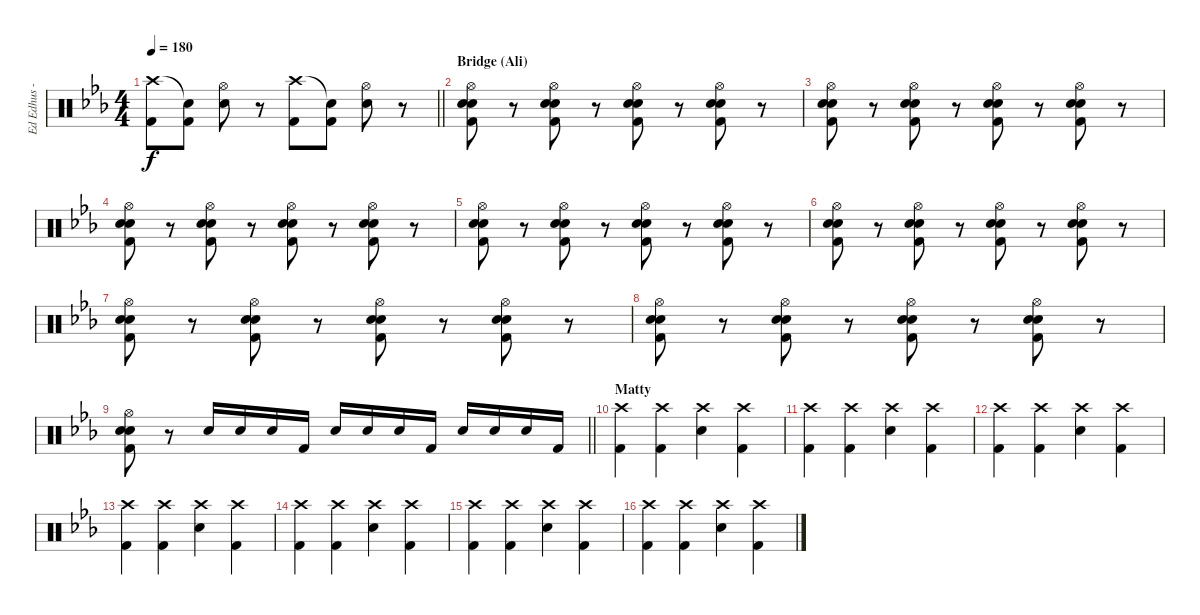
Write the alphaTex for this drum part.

\track ("Ed Edhus - Drums" "Ed Edhus -") {instrument percussion bank 127}
\staff {score}
\articulation defaults
\ts (4 4)
\tempo 180
\clef neutral
\barLineRight lightlight
\ks eb
("Crash high (hit)" "Kick (hit) 2").8{dy f} ("Snare (hit)"{t} "Kick (hit) 2").8 ("Hi-Hat (open)" "Snare (hit) 2").8 r.8 ("Crash high (hit)" "Kick (hit) 2").8 ("Snare (hit)"{t} "Kick (hit) 2").8 ("Hi-Hat (open)" "Snare (hit) 2").8 r.8 |
\section ("" "Bridge (Ali)")
("Hi-Hat (open)" "Snare (hit) 2" "Snare (hit) 2" "Kick (hit) 2").8 r.8 ("Hi-Hat (open)" "Snare (hit) 2" "Snare (hit) 2" "Kick (hit) 2").8 r.8 ("Hi-Hat (open)" "Snare (hit) 2" "Snare (hit) 2" "Kick (hit) 2").8 r.8 ("Hi-Hat (open)" "Snare (hit) 2" "Snare (hit) 2" "Kick (hit) 2").8 r.8 |
("Hi-Hat (open)" "Snare (hit) 2" "Snare (hit) 2" "Kick (hit) 2").8 r.8 ("Hi-Hat (open)" "Snare (hit) 2" "Snare (hit) 2" "Kick (hit) 2").8 r.8 ("Hi-Hat (open)" "Snare (hit) 2" "Snare (hit) 2" "Kick (hit) 2").8 r.8 ("Hi-Hat (open)" "Snare (hit) 2" "Snare (hit) 2" "Kick (hit) 2").8 r.8 |
("Hi-Hat (open)" "Snare (hit) 2" "Snare (hit) 2" "Kick (hit) 2").8 r.8 ("Hi-Hat (open)" "Snare (hit) 2" "Snare (hit) 2" "Kick (hit) 2").8 r.8 ("Hi-Hat (open)" "Snare (hit) 2" "Snare (hit) 2" "Kick (hit) 2").8 r.8 ("Hi-Hat (open)" "Snare (hit) 2" "Snare (hit) 2" "Kick (hit) 2").8 r.8 |
("Hi-Hat (open)" "Snare (hit) 2" "Snare (hit) 2" "Kick (hit) 2").8 r.8 ("Hi-Hat (open)" "Snare (hit) 2" "Snare (hit) 2" "Kick (hit) 2").8 r.8 ("Hi-Hat (open)" "Snare (hit) 2" "Snare (hit) 2" "Kick (hit) 2").8 r.8 ("Hi-Hat (open)" "Snare (hit) 2" "Snare (hit) 2" "Kick (hit) 2").8 r.8 |
("Hi-Hat (open)" "Snare (hit) 2" "Snare (hit) 2" "Kick (hit) 2").8 r.8 ("Hi-Hat (open)" "Snare (hit) 2" "Snare (hit) 2" "Kick (hit) 2").8 r.8 ("Hi-Hat (open)" "Snare (hit) 2" "Snare (hit) 2" "Kick (hit) 2").8 r.8 ("Hi-Hat (open)" "Snare (hit) 2" "Snare (hit) 2" "Kick (hit) 2").8 r.8 |
("Hi-Hat (open)" "Snare (hit) 2" "Snare (hit) 2" "Kick (hit) 2").8 r.8 ("Hi-Hat (open)" "Snare (hit) 2" "Snare (hit) 2" "Kick (hit) 2").8 r.8 ("Hi-Hat (open)" "Snare (hit) 2" "Snare (hit) 2" "Kick (hit) 2").8 r.8 ("Hi-Hat (open)" "Snare (hit) 2" "Snare (hit) 2" "Kick (hit) 2").8 r.8 |
("Hi-Hat (open)" "Snare (hit) 2" "Snare (hit) 2" "Kick (hit) 2").8 r.8 ("Hi-Hat (open)" "Snare (hit) 2" "Snare (hit) 2" "Kick (hit) 2").8 r.8 ("Hi-Hat (open)" "Snare (hit) 2" "Snare (hit) 2" "Kick (hit) 2").8 r.8 ("Hi-Hat (open)" "Snare (hit) 2" "Snare (hit) 2" "Kick (hit) 2").8 r.8 |
\barLineRight lightlight
("Hi-Hat (open)" "Snare (hit) 2" "Snare (hit) 2" "Kick (hit) 2").8 r.8 "Snare (hit) 2".16 "Snare (hit) 2".16 "Snare (hit) 2".16 "Kick (hit) 2".16 "Snare (hit) 2".16 "Snare (hit) 2".16 "Snare (hit) 2".16 "Kick (hit) 2".16 "Snare (hit) 2".16 "Snare (hit) 2".16 "Snare (hit) 2".16 "Kick (hit) 2".16 |
\section ("" "Matty")
("Crash high (hit)" "Kick (hit) 2").4 ("Crash high (hit)" "Kick (hit) 2").4 ("Crash high (hit)" "Snare (hit) 2").4 ("Crash high (hit)" "Kick (hit) 2").4 |
("Crash high (hit)" "Kick (hit) 2").4 ("Crash high (hit)" "Kick (hit) 2").4 ("Crash high (hit)" "Snare (hit) 2").4 ("Crash high (hit)" "Kick (hit) 2").4 |
("Crash high (hit)" "Kick (hit) 2").4 ("Crash high (hit)" "Kick (hit) 2").4 ("Crash high (hit)" "Snare (hit) 2").4 ("Crash high (hit)" "Kick (hit) 2").4 |
("Crash high (hit)" "Kick (hit) 2").4 ("Crash high (hit)" "Kick (hit) 2").4 ("Crash high (hit)" "Snare (hit) 2").4 ("Crash high (hit)" "Kick (hit) 2").4 |
("Crash high (hit)" "Kick (hit) 2").4 ("Crash high (hit)" "Kick (hit) 2").4 ("Crash high (hit)" "Snare (hit) 2").4 ("Crash high (hit)" "Kick (hit) 2").4 |
("Crash high (hit)" "Kick (hit) 2").4 ("Crash high (hit)" "Kick (hit) 2").4 ("Crash high (hit)" "Snare (hit) 2").4 ("Crash high (hit)" "Kick (hit) 2").4 |
("Crash high (hit)" "Kick (hit) 2").4 ("Crash high (hit)" "Kick (hit) 2").4 ("Crash high (hit)" "Snare (hit) 2").4 ("Crash high (hit)" "Kick (hit) 2").4
